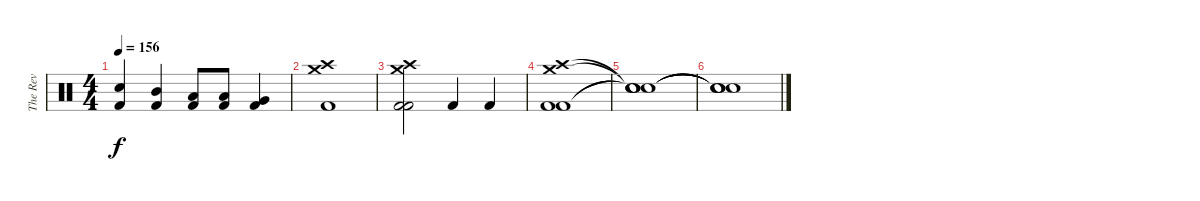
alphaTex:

\track ("The Rev" "The Rev") {instrument percussion}
\staff {score}
\articulation defaults
\ts (4 4)
\tempo 156
\clef neutral
\ks c
("Electric Snare (hit)" "Kick (hit) 2").4{dy f} ("Mid Tom (hit)" "Kick (hit) 2").4 ("Low Tom (hit)" "Kick (hit) 2").8 ("Low Tom (hit)" "Kick (hit) 2").8 ("Very Low Tom (hit)" "Kick (hit) 2").4 |
("Crash high (hit)" "Crash medium (hit)" "Kick (hit) 2").1 |
("Crash medium (hit)" "Crash high (hit)" "Kick (hit) 2" "Kick (hit) 2").2 "Kick (hit) 2".4 "Kick (hit) 2".4 |
("Crash high (hit)" "Crash medium (hit)" "Kick (hit) 2" "Kick (hit) 2").1 |
("Snare (hit)"{t} "Snare (hit)"{t} "Snare (hit)"{t} "Snare (hit)"{t}).1 |
("Snare (hit)"{t} "Snare (hit)"{t} "Snare (hit)"{t} "Snare (hit)"{t}).1
